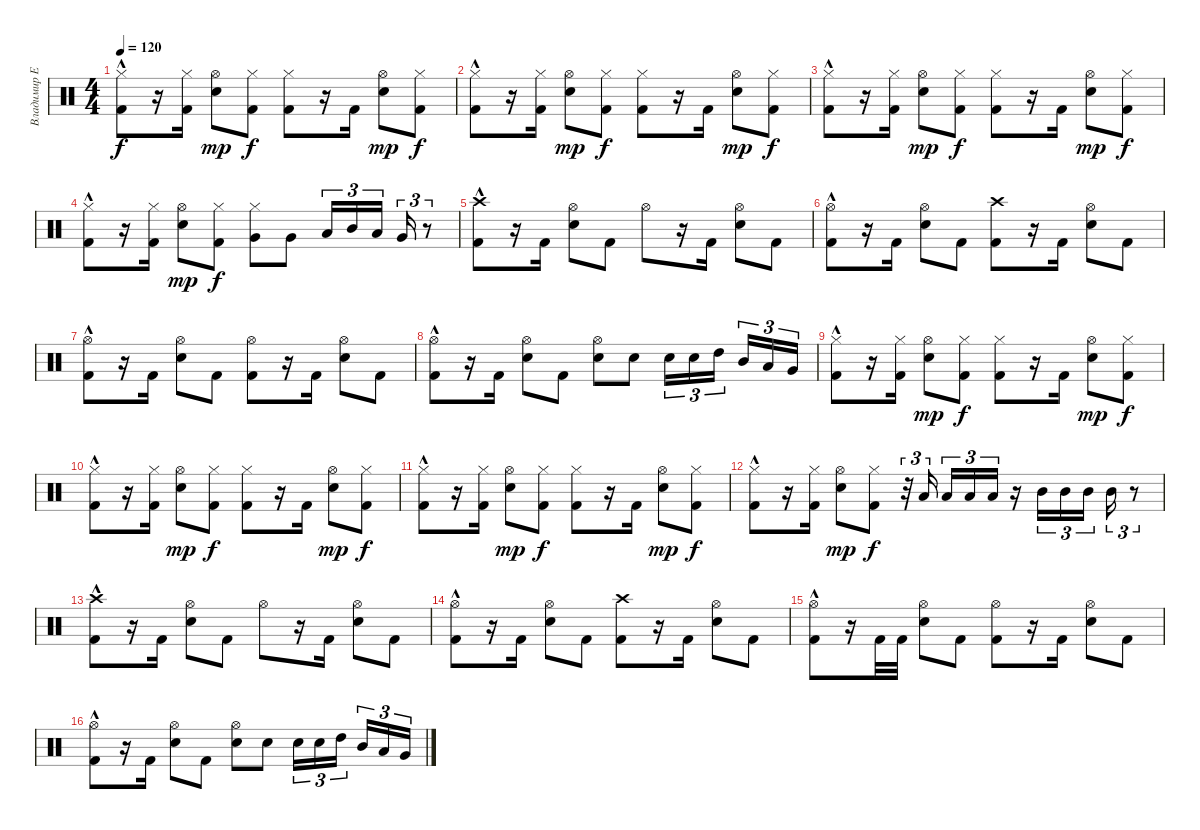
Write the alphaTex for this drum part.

\track ("Владимир Ермаков" "Владимир Е") {instrument percussion}
\staff {score}
\articulation defaults
\ts (4 4)
\tempo 120
\clef neutral
\ks c
("Hi-Hat (closed)" "Kick (hit) 2"{hac}).8{dy f} r.16 ("Hi-Hat (closed)" "Kick (hit) 2").16 ("Hi-Hat (open)" "Electric Snare (hit)").8{dy mp} ("Hi-Hat (closed)" "Kick (hit) 2").8{dy f} ("Hi-Hat (closed)" "Kick (hit) 2").8 r.16 "Kick (hit) 2".16 ("Hi-Hat (open)" "Electric Snare (hit)").8{dy mp} ("Hi-Hat (closed)" "Kick (hit) 2").8{dy f} |
("Hi-Hat (closed)" "Kick (hit) 2"{hac}).8 r.16 ("Hi-Hat (closed)" "Kick (hit) 2").16 ("Hi-Hat (open)" "Electric Snare (hit)").8{dy mp} ("Hi-Hat (closed)" "Kick (hit) 2").8{dy f} ("Hi-Hat (closed)" "Kick (hit) 2").8 r.16 "Kick (hit) 2".16 ("Hi-Hat (open)" "Electric Snare (hit)").8{dy mp} ("Hi-Hat (closed)" "Kick (hit) 2").8{dy f} |
("Hi-Hat (closed)" "Kick (hit) 2"{hac}).8 r.16 ("Hi-Hat (closed)" "Kick (hit) 2").16 ("Hi-Hat (open)" "Electric Snare (hit)").8{dy mp} ("Hi-Hat (closed)" "Kick (hit) 2").8{dy f} ("Hi-Hat (closed)" "Kick (hit) 2").8 r.16 "Kick (hit) 2".16 ("Hi-Hat (open)" "Electric Snare (hit)").8{dy mp} ("Hi-Hat (closed)" "Kick (hit) 2").8{dy f} |
("Hi-Hat (closed)" "Kick (hit) 2"{hac}).8 r.16 ("Hi-Hat (closed)" "Kick (hit) 2").16 ("Hi-Hat (open)" "Electric Snare (hit)").8{dy mp} ("Hi-Hat (closed)" "Kick (hit) 2").8{dy f} ("Hi-Hat (closed)" "Very Low Tom (hit)").8 "Very Low Tom (hit)".8 "Low Tom (hit)".16{tu (3 2)} "Mid Tom (hit)".16{tu (3 2)} "Low Tom (hit)".16{tu (3 2)} "Very Low Tom (hit)".16{tu (3 2)} r.8{tu (3 2)} |
("Crash high (hit)" "Kick (hit) 2"{hac}).8 r.16 "Kick (hit) 2".16 ("Hi-Hat (open)" "Electric Snare (hit)").8 "Kick (hit) 2".8 "Hi-Hat (open)".8 r.16 "Kick (hit) 2".16 ("Hi-Hat (open)" "Electric Snare (hit)").8 "Kick (hit) 2".8 |
("Hi-Hat (open)" "Kick (hit) 2"{hac}).8 r.16 "Kick (hit) 2".16 ("Hi-Hat (open)" "Electric Snare (hit)").8 "Kick (hit) 2".8 ("Crash high (hit)" "Kick (hit) 2").8 r.16 "Kick (hit) 2".16 ("Hi-Hat (open)" "Electric Snare (hit)").8 "Kick (hit) 2".8 |
("Hi-Hat (open)" "Kick (hit) 2"{hac}).8 r.16 "Kick (hit) 2".16 ("Hi-Hat (open)" "Electric Snare (hit)").8 "Kick (hit) 2".8 ("Hi-Hat (open)" "Kick (hit) 2").8 r.16 "Kick (hit) 2".16 ("Hi-Hat (open)" "Electric Snare (hit)").8 "Kick (hit) 2".8 |
("Hi-Hat (open)" "Kick (hit) 2"{hac}).8 r.16 "Kick (hit) 2".16 ("Hi-Hat (open)" "Electric Snare (hit)").8 "Kick (hit) 2".8 ("Hi-Hat (open)" "Electric Snare (hit)").8 "Electric Snare (hit)".8 "Electric Snare (hit)".16{tu (3 2)} "Electric Snare (hit)".16{tu (3 2)} "High Tom (hit)".16{tu (3 2)} "Mid Tom (hit)".16{tu (3 2)} "Low Tom (hit)".16{tu (3 2)} "Very Low Tom (hit)".16{tu (3 2)} |
("Hi-Hat (closed)" "Kick (hit) 2"{hac}).8 r.16 ("Hi-Hat (closed)" "Kick (hit) 2").16 ("Hi-Hat (open)" "Electric Snare (hit)").8{dy mp} ("Hi-Hat (closed)" "Kick (hit) 2").8{dy f} ("Hi-Hat (closed)" "Kick (hit) 2").8 r.16 "Kick (hit) 2".16 ("Hi-Hat (open)" "Electric Snare (hit)").8{dy mp} ("Hi-Hat (closed)" "Kick (hit) 2").8{dy f} |
("Hi-Hat (closed)" "Kick (hit) 2"{hac}).8 r.16 ("Hi-Hat (closed)" "Kick (hit) 2").16 ("Hi-Hat (open)" "Electric Snare (hit)").8{dy mp} ("Hi-Hat (closed)" "Kick (hit) 2").8{dy f} ("Hi-Hat (closed)" "Kick (hit) 2").8 r.16 "Kick (hit) 2".16 ("Hi-Hat (open)" "Electric Snare (hit)").8{dy mp} ("Hi-Hat (closed)" "Kick (hit) 2").8{dy f} |
("Hi-Hat (closed)" "Kick (hit) 2"{hac}).8 r.16 ("Hi-Hat (closed)" "Kick (hit) 2").16 ("Hi-Hat (open)" "Electric Snare (hit)").8{dy mp} ("Hi-Hat (closed)" "Kick (hit) 2").8{dy f} ("Hi-Hat (closed)" "Kick (hit) 2").8 r.16 "Kick (hit) 2".16 ("Hi-Hat (open)" "Electric Snare (hit)").8{dy mp} ("Hi-Hat (closed)" "Kick (hit) 2").8{dy f} |
("Hi-Hat (closed)" "Kick (hit) 2"{hac}).8 r.16 ("Hi-Hat (closed)" "Kick (hit) 2").16 ("Hi-Hat (open)" "Electric Snare (hit)").8{dy mp} ("Hi-Hat (closed)" "Kick (hit) 2").8{dy f} r.32{tu (3 2)} "Low Tom (hit)".16{tu (3 2)} "Low Tom (hit)".16{tu (3 2)} "Low Tom (hit)".16{tu (3 2)} "Low Tom (hit)".16{tu (3 2)} r.16 "Mid Tom (hit)".16{tu (3 2)} "Mid Tom (hit)".16{tu (3 2)} "Mid Tom (hit)".16{tu (3 2)} "Mid Tom (hit)".16{tu (3 2)} r.8{tu (3 2)} |
("Crash high (hit)" "Kick (hit) 2"{hac}).8 r.16 "Kick (hit) 2".16 ("Hi-Hat (open)" "Electric Snare (hit)").8 "Kick (hit) 2".8 "Hi-Hat (open)".8 r.16 "Kick (hit) 2".16 ("Hi-Hat (open)" "Electric Snare (hit)").8 "Kick (hit) 2".8 |
("Hi-Hat (open)" "Kick (hit) 2"{hac}).8 r.16 "Kick (hit) 2".16 ("Hi-Hat (open)" "Electric Snare (hit)").8 "Kick (hit) 2".8 ("Crash high (hit)" "Kick (hit) 2").8 r.16 "Kick (hit) 2".16 ("Hi-Hat (open)" "Electric Snare (hit)").8 "Kick (hit) 2".8 |
("Hi-Hat (open)" "Kick (hit) 2"{hac}).8 r.16 "Kick (hit) 2".32 "Kick (hit) 2".32 ("Hi-Hat (open)" "Electric Snare (hit)").8 "Kick (hit) 2".8 ("Hi-Hat (open)" "Kick (hit) 2").8 r.16 "Kick (hit) 2".16 ("Hi-Hat (open)" "Electric Snare (hit)").8 "Kick (hit) 2".8 |
("Hi-Hat (open)" "Kick (hit) 2"{hac}).8 r.16 "Kick (hit) 2".16 ("Hi-Hat (open)" "Electric Snare (hit)").8 "Kick (hit) 2".8 ("Hi-Hat (open)" "Electric Snare (hit)").8 "Electric Snare (hit)".8 "Electric Snare (hit)".16{tu (3 2)} "Electric Snare (hit)".16{tu (3 2)} "High Tom (hit)".16{tu (3 2)} "Mid Tom (hit)".16{tu (3 2)} "Low Tom (hit)".16{tu (3 2)} "Very Low Tom (hit)".16{tu (3 2)}
